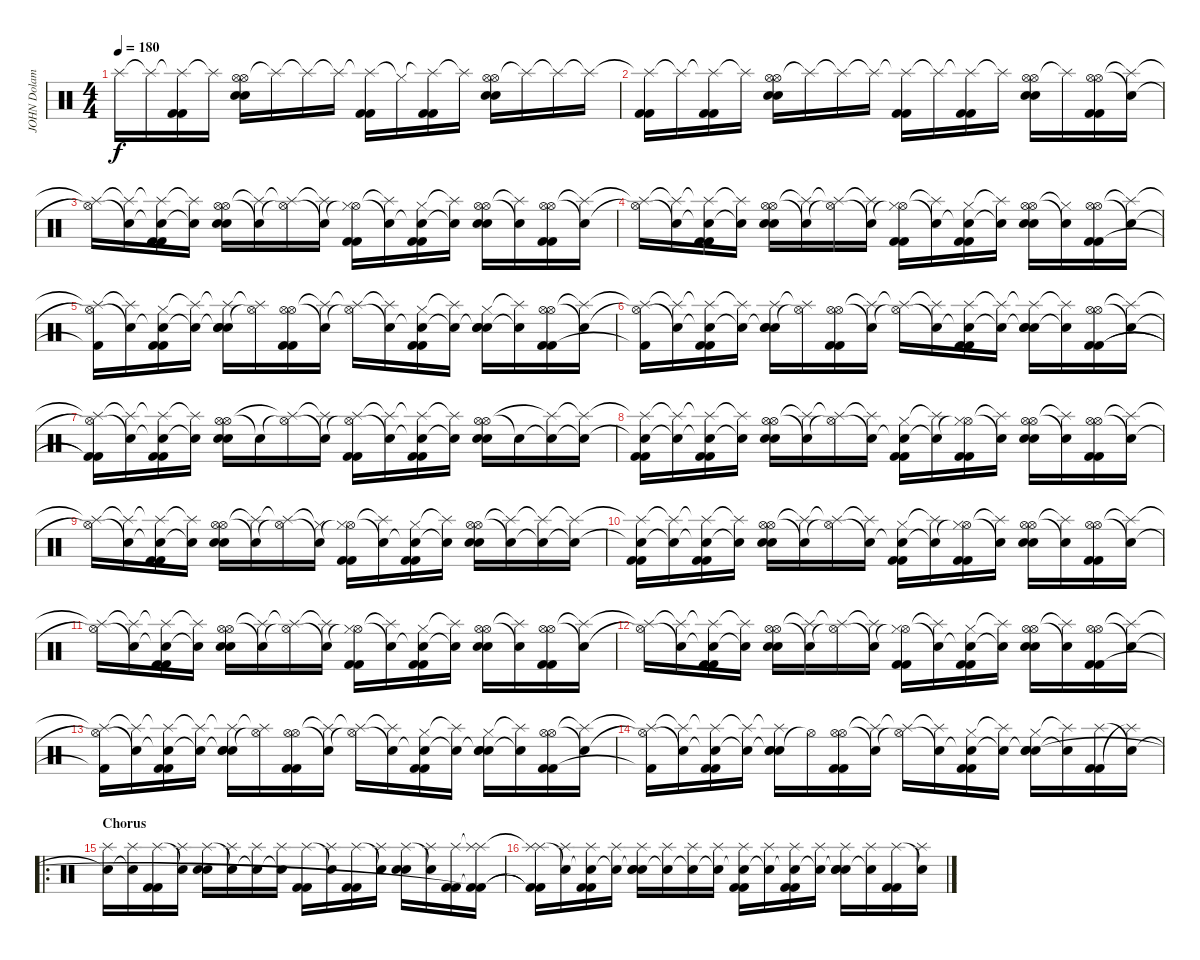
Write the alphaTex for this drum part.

\track ("JOHN Dolamyan" "JOHN Dolam") {instrument percussion}
\staff {score}
\articulation defaults
\ts (4 4)
\tempo 180
\clef neutral
\ks c "Splash (hit)"{t}.16{dy f} "Splash (hit)"{t}.16
("Splash (hit)"{t} "Kick (hit) 2" "Kick (hit) 2").16 "Splash (hit)"{t}.16 ("Hi-Hat (open)" "Hi-Hat (open)" "Electric Snare (hit)" "Electric Snare (hit)").16 "Splash (hit)"{t}.16 "Splash (hit)"{t}.16 "Splash (hit)"{t}.16 ("Splash (hit)"{t} "Kick (hit) 2" "Kick (hit) 2").16 "Hi-Hat (closed)"{t}.16 ("Splash (hit)"{t} "Kick (hit) 2" "Kick (hit) 2").16 "Splash (hit)"{t}.16 ("Hi-Hat (open)" "Hi-Hat (open)" "Electric Snare (hit)" "Electric Snare (hit)").16 "Splash (hit)"{t}.16 "Splash (hit)"{t}.16 "Splash (hit)"{t}.16 |
("Splash (hit)"{t} "Kick (hit) 2" "Kick (hit) 2").16 "Splash (hit)"{t}.16 ("Splash (hit)"{t} "Kick (hit) 2" "Kick (hit) 2").16 "Splash (hit)"{t}.16 ("Hi-Hat (open)" "Hi-Hat (open)" "Electric Snare (hit)" "Electric Snare (hit)").16 "Splash (hit)"{t}.16 "Splash (hit)"{t}.16 "Splash (hit)"{t}.16 ("Splash (hit)"{t} "Kick (hit) 2" "Kick (hit) 2").16 "Splash (hit)"{t}.16 ("Splash (hit)"{t} "Kick (hit) 2" "Kick (hit) 2").16 "Splash (hit)"{t}.16 ("Hi-Hat (open)" "Hi-Hat (open)" "Electric Snare (hit)" "Electric Snare (hit)").16 "Splash (hit)"{t}.16 ("Hi-Hat (open)" "Hi-Hat (open)" "Kick (hit) 2" "Kick (hit) 2").16 ("Snare (hit)"{t} "Splash (hit)"{t}).16 |
("Hi-Hat (open)"{t} "Splash (hit)"{t}).16 ("Snare (hit)"{t} "Splash (hit)"{t}).16 ("Snare (hit)"{t} "Splash (hit)"{t} "Kick (hit) 2" "Kick (hit) 2").16 ("Snare (hit)"{t} "Splash (hit)"{t}).16 ("Hi-Hat (open)" "Hi-Hat (open)" "Electric Snare (hit)" "Electric Snare (hit)").16 ("Snare (hit)"{t} "Splash (hit)"{t}).16 ("Hi-Hat (open)"{t} "Splash (hit)"{t}).16 ("Snare (hit)"{t} "Splash (hit)"{t}).16 ("Hi-Hat (open)"{t} "Hi-Hat (closed)" "Kick (hit) 2" "Kick (hit) 2").16 ("Snare (hit)"{t} "Splash (hit)"{t}).16 ("Snare (hit)"{t} "Hi-Hat (closed)" "Kick (hit) 2" "Kick (hit) 2").16 ("Snare (hit)"{t} "Splash (hit)"{t}).16 ("Hi-Hat (open)" "Hi-Hat (open)" "Electric Snare (hit)" "Electric Snare (hit)").16 ("Snare (hit)"{t} "Splash (hit)"{t}).16 ("Hi-Hat (open)" "Hi-Hat (open)" "Kick (hit) 2" "Kick (hit) 2").16 ("Snare (hit)"{t} "Splash (hit)"{t}).16 |
("Hi-Hat (open)"{t} "Splash (hit)"{t}).16 ("Snare (hit)"{t} "Splash (hit)"{t}).16 ("Snare (hit)"{t} "Splash (hit)"{t} "Kick (hit) 2" "Kick (hit) 2").16 ("Snare (hit)"{t} "Splash (hit)"{t}).16 ("Hi-Hat (open)" "Hi-Hat (open)" "Electric Snare (hit)" "Electric Snare (hit)").16 ("Snare (hit)"{t} "Splash (hit)"{t}).16 ("Hi-Hat (open)"{t} "Splash (hit)"{t}).16 ("Snare (hit)"{t} "Splash (hit)"{t}).16 ("Hi-Hat (open)"{t} "Hi-Hat (closed)" "Kick (hit) 2" "Kick (hit) 2").16 ("Snare (hit)"{t} "Splash (hit)"{t}).16 ("Snare (hit)"{t} "Hi-Hat (closed)" "Kick (hit) 2" "Kick (hit) 2").16 ("Snare (hit)"{t} "Splash (hit)"{t}).16 ("Hi-Hat (open)" "Hi-Hat (open)" "Electric Snare (hit)" "Electric Snare (hit)").16 ("Snare (hit)"{t} "Hi-Hat (closed)"{t}).16 ("Hi-Hat (open)" "Hi-Hat (open)" "Kick (hit) 2" "Kick (hit) 2").16 ("Snare (hit)"{t} "Splash (hit)"{t}).16 |
("Hi-Hat (open)"{t} "Splash (hit)"{t} "Kick (hit) 2"{t}).16 ("Snare (hit)"{t} "Splash (hit)"{t}).16 ("Snare (hit)"{t} "Hi-Hat (closed)" "Kick (hit) 2" "Kick (hit) 2").16 ("Snare (hit)"{t} "Splash (hit)"{t}).16 ("Snare (hit)"{t} "Splash (hit)"{t} "Electric Snare (hit)" "Electric Snare (hit)").16 ("Hi-Hat (open)"{t} "Splash (hit)"{t}).16 ("Hi-Hat (open)" "Hi-Hat (open)" "Kick (hit) 2" "Kick (hit) 2").16 ("Snare (hit)"{t} "Splash (hit)"{t}).16 ("Hi-Hat (open)"{t} "Splash (hit)"{t}).16 ("Snare (hit)"{t} "Splash (hit)"{t}).16 ("Snare (hit)"{t} "Hi-Hat (closed)" "Kick (hit) 2" "Kick (hit) 2").16 ("Snare (hit)"{t} "Splash (hit)"{t}).16 ("Snare (hit)"{t} "Hi-Hat (closed)" "Electric Snare (hit)" "Electric Snare (hit)").16 ("Snare (hit)"{t} "Splash (hit)"{t}).16 ("Hi-Hat (open)" "Hi-Hat (open)" "Kick (hit) 2" "Kick (hit) 2").16 ("Snare (hit)"{t} "Splash (hit)"{t}).16 |
("Hi-Hat (open)"{t} "Splash (hit)"{t} "Kick (hit) 2"{t}).16 ("Snare (hit)"{t} "Splash (hit)"{t}).16 ("Snare (hit)"{t} "Splash (hit)"{t} "Kick (hit) 2" "Kick (hit) 2").16 ("Snare (hit)"{t} "Splash (hit)"{t}).16 ("Snare (hit)"{t} "Splash (hit)" "Electric Snare (hit)" "Electric Snare (hit)").16 ("Hi-Hat (open)"{t} "Splash (hit)"{t}).16 ("Hi-Hat (open)" "Hi-Hat (open)" "Kick (hit) 2" "Kick (hit) 2").16 ("Snare (hit)"{t} "Splash (hit)"{t}).16 ("Hi-Hat (open)"{t} "Splash (hit)"{t}).16 ("Snare (hit)"{t} "Splash (hit)"{t}).16 ("Snare (hit)"{t} "Splash (hit)" "Kick (hit) 2" "Kick (hit) 2").16 ("Snare (hit)"{t} "Splash (hit)"{t}).16 ("Snare (hit)"{t} "Splash (hit)"{t} "Electric Snare (hit)" "Electric Snare (hit)").16 ("Snare (hit)"{t} "Splash (hit)"{t}).16 ("Hi-Hat (open)" "Hi-Hat (open)" "Kick (hit) 2" "Kick (hit) 2").16 ("Snare (hit)"{t} "Splash (hit)"{t}).16 |
("Hi-Hat (open)"{t} "Splash (hit)"{t} "Kick (hit) 2"{t} "Kick (hit) 2"{t}).16 ("Snare (hit)"{t} "Splash (hit)"{t}).16 ("Snare (hit)"{t} "Splash (hit)"{t} "Kick (hit) 2" "Kick (hit) 2").16 ("Snare (hit)"{t} "Splash (hit)"{t}).16 ("Hi-Hat (open)" "Hi-Hat (open)" "Electric Snare (hit)" "Electric Snare (hit)").16 "Snare (hit)"{t}.16 ("Hi-Hat (open)"{t} "Splash (hit)"{t}).16 ("Snare (hit)"{t} "Splash (hit)"{t}).16 ("Hi-Hat (open)"{t} "Splash (hit)" "Kick (hit) 2" "Kick (hit) 2").16 ("Snare (hit)"{t} "Splash (hit)"{t}).16 ("Snare (hit)"{t} "Splash (hit)"{t} "Kick (hit) 2" "Kick (hit) 2").16 ("Snare (hit)"{t} "Splash (hit)"{t}).16 ("Hi-Hat (open)" "Hi-Hat (open)" "Electric Snare (hit)" "Electric Snare (hit)").16 "Snare (hit)"{t}.16 ("Snare (hit)"{t} "Splash (hit)"{t}).16 ("Snare (hit)"{t} "Splash (hit)"{t}).16 |
("Snare (hit)"{t} "Splash (hit)"{t} "Kick (hit) 2" "Kick (hit) 2").16 ("Snare (hit)"{t} "Splash (hit)"{t}).16 ("Snare (hit)"{t} "Splash (hit)"{t} "Kick (hit) 2" "Kick (hit) 2").16 ("Snare (hit)"{t} "Splash (hit)"{t}).16 ("Hi-Hat (open)" "Hi-Hat (open)" "Electric Snare (hit)" "Electric Snare (hit)").16 ("Snare (hit)"{t} "Splash (hit)"{t}).16 ("Hi-Hat (open)"{t} "Splash (hit)"{t}).16 ("Snare (hit)"{t} "Splash (hit)"{t}).16 ("Snare (hit)"{t} "Hi-Hat (closed)" "Kick (hit) 2" "Kick (hit) 2").16 ("Snare (hit)"{t} "Splash (hit)"{t}).16 ("Hi-Hat (open)"{t} "Hi-Hat (closed)" "Kick (hit) 2" "Kick (hit) 2").16 ("Snare (hit)"{t} "Splash (hit)"{t}).16 ("Hi-Hat (open)" "Hi-Hat (open)" "Electric Snare (hit)" "Electric Snare (hit)").16 ("Snare (hit)"{t} "Splash (hit)"{t}).16 ("Hi-Hat (open)" "Hi-Hat (open)" "Kick (hit) 2" "Kick (hit) 2").16 ("Snare (hit)"{t} "Splash (hit)"{t}).16 |
("Hi-Hat (open)"{t} "Splash (hit)"{t}).16 ("Snare (hit)"{t} "Splash (hit)"{t}).16 ("Snare (hit)"{t} "Splash (hit)"{t} "Kick (hit) 2" "Kick (hit) 2").16 ("Snare (hit)"{t} "Splash (hit)"{t}).16 ("Hi-Hat (open)" "Hi-Hat (open)" "Electric Snare (hit)" "Electric Snare (hit)").16 ("Snare (hit)"{t} "Splash (hit)"{t}).16 ("Hi-Hat (open)"{t} "Splash (hit)"{t}).16 ("Snare (hit)"{t} "Hi-Hat (closed)"{t}).16 ("Hi-Hat (open)"{t} "Hi-Hat (closed)" "Kick (hit) 2" "Kick (hit) 2").16 ("Snare (hit)"{t} "Splash (hit)"{t}).16 ("Snare (hit)"{t} "Hi-Hat (closed)" "Kick (hit) 2" "Kick (hit) 2").16 ("Snare (hit)"{t} "Splash (hit)"{t}).16 ("Hi-Hat (open)" "Hi-Hat (open)" "Electric Snare (hit)" "Electric Snare (hit)").16 ("Snare (hit)"{t} "Splash (hit)"{t}).16 ("Snare (hit)"{t} "Splash (hit)"{t}).16 ("Snare (hit)"{t} "Splash (hit)"{t}).16 |
("Snare (hit)"{t} "Splash (hit)"{t} "Kick (hit) 2" "Kick (hit) 2").16 ("Snare (hit)"{t} "Splash (hit)"{t}).16 ("Snare (hit)"{t} "Splash (hit)"{t} "Kick (hit) 2" "Kick (hit) 2").16 ("Snare (hit)"{t} "Splash (hit)"{t}).16 ("Hi-Hat (open)" "Hi-Hat (open)" "Electric Snare (hit)" "Electric Snare (hit)").16 ("Snare (hit)"{t} "Splash (hit)"{t}).16 ("Hi-Hat (open)"{t} "Splash (hit)"{t}).16 ("Snare (hit)"{t} "Splash (hit)"{t}).16 ("Snare (hit)"{t} "Hi-Hat (closed)" "Kick (hit) 2" "Kick (hit) 2").16 ("Snare (hit)"{t} "Splash (hit)"{t}).16 ("Hi-Hat (open)"{t} "Hi-Hat (closed)" "Kick (hit) 2" "Kick (hit) 2").16 ("Snare (hit)"{t} "Splash (hit)"{t}).16 ("Hi-Hat (open)" "Hi-Hat (open)" "Electric Snare (hit)" "Electric Snare (hit)").16 ("Snare (hit)"{t} "Splash (hit)"{t}).16 ("Hi-Hat (open)" "Hi-Hat (open)" "Kick (hit) 2" "Kick (hit) 2").16 ("Snare (hit)"{t} "Splash (hit)"{t}).16 |
("Hi-Hat (open)"{t} "Splash (hit)"{t}).16 ("Snare (hit)"{t} "Splash (hit)"{t}).16 ("Snare (hit)"{t} "Splash (hit)"{t} "Kick (hit) 2" "Kick (hit) 2").16 ("Snare (hit)"{t} "Splash (hit)"{t}).16 ("Hi-Hat (open)" "Hi-Hat (open)" "Electric Snare (hit)" "Electric Snare (hit)").16 ("Snare (hit)"{t} "Splash (hit)"{t}).16 ("Hi-Hat (open)"{t} "Splash (hit)"{t}).16 ("Snare (hit)"{t} "Splash (hit)"{t}).16 ("Hi-Hat (open)"{t} "Hi-Hat (closed)" "Kick (hit) 2" "Kick (hit) 2").16 ("Snare (hit)"{t} "Splash (hit)"{t}).16 ("Snare (hit)"{t} "Hi-Hat (closed)" "Kick (hit) 2" "Kick (hit) 2").16 ("Snare (hit)"{t} "Splash (hit)"{t}).16 ("Hi-Hat (open)" "Hi-Hat (open)" "Electric Snare (hit)" "Electric Snare (hit)").16 ("Snare (hit)"{t} "Splash (hit)"{t}).16 ("Hi-Hat (open)" "Hi-Hat (open)" "Kick (hit) 2" "Kick (hit) 2").16 ("Snare (hit)"{t} "Splash (hit)"{t}).16 |
("Hi-Hat (open)"{t} "Splash (hit)"{t}).16 ("Snare (hit)"{t} "Splash (hit)"{t}).16 ("Snare (hit)"{t} "Splash (hit)"{t} "Kick (hit) 2" "Kick (hit) 2").16 ("Snare (hit)"{t} "Splash (hit)"{t}).16 ("Hi-Hat (open)" "Hi-Hat (open)" "Electric Snare (hit)" "Electric Snare (hit)").16 ("Snare (hit)"{t} "Splash (hit)"{t}).16 ("Hi-Hat (open)"{t} "Splash (hit)"{t}).16 ("Snare (hit)"{t} "Splash (hit)"{t}).16 ("Hi-Hat (open)"{t} "Hi-Hat (closed)" "Kick (hit) 2" "Kick (hit) 2").16 ("Snare (hit)"{t} "Splash (hit)"{t}).16 ("Snare (hit)"{t} "Hi-Hat (closed)" "Kick (hit) 2" "Kick (hit) 2").16 ("Snare (hit)"{t} "Splash (hit)"{t}).16 ("Hi-Hat (open)" "Hi-Hat (open)" "Electric Snare (hit)" "Electric Snare (hit)").16 ("Snare (hit)"{t} "Splash (hit)"{t}).16 ("Hi-Hat (open)" "Hi-Hat (open)" "Kick (hit) 2" "Kick (hit) 2").16 ("Snare (hit)"{t} "Splash (hit)"{t}).16 |
("Hi-Hat (open)"{t} "Splash (hit)"{t} "Kick (hit) 2"{t}).16 ("Snare (hit)"{t} "Splash (hit)"{t}).16 ("Snare (hit)"{t} "Splash (hit)"{t} "Kick (hit) 2" "Kick (hit) 2").16 ("Snare (hit)"{t} "Splash (hit)"{t}).16 ("Snare (hit)"{t} "Splash (hit)"{t} "Electric Snare (hit)" "Electric Snare (hit)").16 ("Hi-Hat (open)"{t} "Splash (hit)"{t}).16 ("Hi-Hat (open)" "Hi-Hat (open)" "Kick (hit) 2" "Kick (hit) 2").16 ("Snare (hit)"{t} "Splash (hit)"{t}).16 ("Hi-Hat (open)"{t} "Splash (hit)"{t}).16 ("Snare (hit)"{t} "Splash (hit)"{t}).16 ("Snare (hit)"{t} "Hi-Hat (closed)" "Kick (hit) 2" "Kick (hit) 2").16 ("Snare (hit)"{t} "Splash (hit)"{t}).16 ("Snare (hit)"{t} "Hi-Hat (closed)" "Electric Snare (hit)" "Electric Snare (hit)").16 ("Snare (hit)"{t} "Splash (hit)"{t}).16 ("Hi-Hat (open)" "Hi-Hat (open)" "Kick (hit) 2" "Kick (hit) 2").16 ("Snare (hit)"{t} "Splash (hit)"{t}).16 |
("Hi-Hat (open)"{t} "Splash (hit)"{t} "Kick (hit) 2"{t}).16 ("Snare (hit)"{t} "Splash (hit)"{t}).16 ("Snare (hit)"{t} "Splash (hit)"{t} "Kick (hit) 2" "Kick (hit) 2").16 ("Snare (hit)"{t} "Splash (hit)"{t}).16 ("Snare (hit)"{t} "Splash (hit)"{t} "Electric Snare (hit)" "Electric Snare (hit)").16 "Hi-Hat (open)"{t}.16 ("Hi-Hat (open)" "Hi-Hat (open)" "Kick (hit) 2" "Kick (hit) 2").16 ("Snare (hit)"{t} "Splash (hit)"{t}).16 ("Hi-Hat (open)"{t} "Splash (hit)"{t}).16 ("Snare (hit)"{t} "Splash (hit)"{t}).16 ("Snare (hit)"{t} "Hi-Hat (closed)" "Kick (hit) 2" "Kick (hit) 2").16 ("Snare (hit)"{t} "Splash (hit)"{t}).16 ("Snare (hit)"{t} "Hi-Hat (closed)" "Electric Snare (hit)" "Electric Snare (hit)").16 ("Snare (hit)"{t} "Splash (hit)"{t}).16 ("Splash (hit)" "Kick (hit) 2" "Kick (hit) 2").16 ("Snare (hit)"{t} "Splash (hit)"{t}).16 |
\ro
\section ("" "Chorus")
("Snare (hit)"{t} "Splash (hit)").16 ("Snare (hit)"{t} "Splash (hit)").16 ("Splash (hit)" "Kick (hit) 2" "Kick (hit) 2").16 ("Snare (hit)"{t} "Splash (hit)").16 ("Splash (hit)" "Electric Snare (hit)" "Electric Snare (hit)").16 ("Snare (hit)"{t} "Splash (hit)").16 ("Snare (hit)"{t} "Splash (hit)").16 ("Snare (hit)"{t} "Splash (hit)").16 ("Splash (hit)" "Kick (hit) 2" "Kick (hit) 2").16 ("Snare (hit)"{t} "Splash (hit)").16 ("Splash (hit)" "Kick (hit) 2" "Kick (hit) 2").16 ("Snare (hit)"{t} "Splash (hit)").16 ("Splash (hit)" "Electric Snare (hit)" "Electric Snare (hit)").16 ("Snare (hit)"{t} "Splash (hit)").16 ("Splash (hit)" "Kick (hit) 2" "Kick (hit) 2").16 ("Splash (hit)"{t} "Splash (hit)" "Kick (hit) 2"{t} "Kick (hit) 2"{t}).16 |
("Splash (hit)"{t} "Splash (hit)" "Kick (hit) 2"{t} "Kick (hit) 2"{t}).16 ("Snare (hit)"{t} "Splash (hit)").16 ("Snare (hit)"{t} "Splash (hit)" "Kick (hit) 2" "Kick (hit) 2").16 ("Snare (hit)"{t} "Splash (hit)").16 ("Snare (hit)"{t} "Splash (hit)" "Electric Snare (hit)" "Electric Snare (hit)").16 ("Snare (hit)"{t} "Splash (hit)").16 ("Snare (hit)"{t} "Splash (hit)").16 ("Snare (hit)"{t} "Splash (hit)").16 ("Snare (hit)"{t} "Splash (hit)" "Kick (hit) 2" "Kick (hit) 2").16 ("Snare (hit)"{t} "Splash (hit)").16 ("Snare (hit)"{t} "Splash (hit)" "Kick (hit) 2" "Kick (hit) 2").16 ("Snare (hit)"{t} "Splash (hit)").16 ("Snare (hit)"{t} "Splash (hit)" "Electric Snare (hit)" "Electric Snare (hit)").16 ("Snare (hit)"{t} "Splash (hit)").16 ("Splash (hit)" "Kick (hit) 2" "Kick (hit) 2").16 ("Snare (hit)"{t} "Splash (hit)").16
